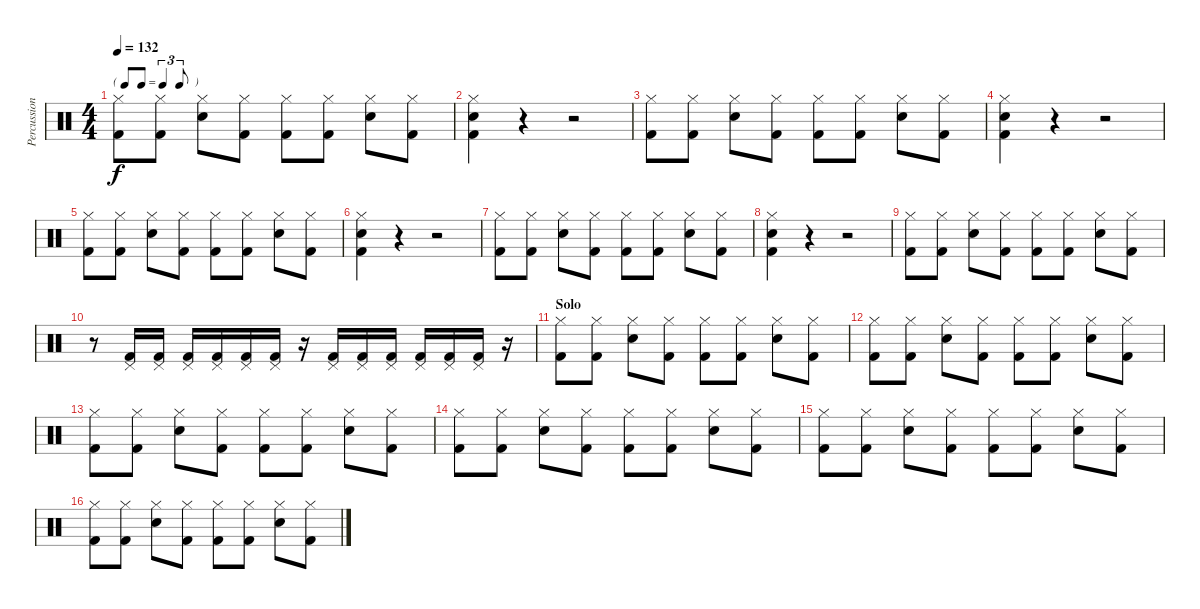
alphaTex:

\track ("Percussion" "Percussion") {instrument percussion}
\staff {score}
\articulation defaults
\ts (4 4)
\tf triplet8th
\tempo 132
\clef neutral
\ks c
("Hi-Hat (closed)" "Kick (hit) 2").8{dy f} ("Hi-Hat (closed)" "Kick (hit) 2").8 ("Hi-Hat (closed)" "Electric Snare (hit)").8 ("Hi-Hat (closed)" "Kick (hit) 2").8 ("Hi-Hat (closed)" "Kick (hit) 2").8 ("Hi-Hat (closed)" "Kick (hit) 2").8 ("Hi-Hat (closed)" "Electric Snare (hit)").8 ("Hi-Hat (closed)" "Kick (hit) 2").8 |
("Hi-Hat (closed)" "Electric Snare (hit)" "Kick (hit) 2").4 r.4 r.2 |
("Hi-Hat (closed)" "Kick (hit) 2").8 ("Hi-Hat (closed)" "Kick (hit) 2").8 ("Hi-Hat (closed)" "Electric Snare (hit)").8 ("Hi-Hat (closed)" "Kick (hit) 2").8 ("Hi-Hat (closed)" "Kick (hit) 2").8 ("Hi-Hat (closed)" "Kick (hit) 2").8 ("Hi-Hat (closed)" "Electric Snare (hit)").8 ("Hi-Hat (closed)" "Kick (hit) 2").8 |
("Hi-Hat (closed)" "Electric Snare (hit)" "Kick (hit) 2").4 r.4 r.2 |
("Hi-Hat (closed)" "Kick (hit) 2").8 ("Hi-Hat (closed)" "Kick (hit) 2").8 ("Hi-Hat (closed)" "Electric Snare (hit)").8 ("Hi-Hat (closed)" "Kick (hit) 2").8 ("Hi-Hat (closed)" "Kick (hit) 2").8 ("Hi-Hat (closed)" "Kick (hit) 2").8 ("Hi-Hat (closed)" "Electric Snare (hit)").8 ("Hi-Hat (closed)" "Kick (hit) 2").8 |
("Hi-Hat (closed)" "Electric Snare (hit)" "Kick (hit) 2").4 r.4 r.2 |
("Hi-Hat (closed)" "Kick (hit) 2").8 ("Hi-Hat (closed)" "Kick (hit) 2").8 ("Hi-Hat (closed)" "Electric Snare (hit)").8 ("Hi-Hat (closed)" "Kick (hit) 2").8 ("Hi-Hat (closed)" "Kick (hit) 2").8 ("Hi-Hat (closed)" "Kick (hit) 2").8 ("Hi-Hat (closed)" "Electric Snare (hit)").8 ("Hi-Hat (closed)" "Kick (hit) 2").8 |
("Hi-Hat (closed)" "Electric Snare (hit)" "Kick (hit) 2").4 r.4 r.2 |
("Hi-Hat (closed)" "Kick (hit) 2").8 ("Hi-Hat (closed)" "Kick (hit) 2").8 ("Hi-Hat (closed)" "Electric Snare (hit)").8 ("Hi-Hat (closed)" "Kick (hit) 2").8 ("Hi-Hat (closed)" "Kick (hit) 2").8 ("Hi-Hat (closed)" "Kick (hit) 2").8 ("Hi-Hat (closed)" "Electric Snare (hit)").8 ("Hi-Hat (closed)" "Kick (hit) 2").8 |
r.8 ("Pedal Hi-Hat (hit)" "Kick (hit) 2").16 ("Pedal Hi-Hat (hit)" "Kick (hit) 2").16 ("Pedal Hi-Hat (hit)" "Kick (hit) 2").16 ("Pedal Hi-Hat (hit)" "Kick (hit) 2").16 ("Pedal Hi-Hat (hit)" "Kick (hit) 2").16 ("Pedal Hi-Hat (hit)" "Kick (hit) 2").16 r.16 ("Pedal Hi-Hat (hit)" "Kick (hit) 2").16 ("Pedal Hi-Hat (hit)" "Kick (hit) 2").16 ("Pedal Hi-Hat (hit)" "Kick (hit) 2").16 ("Pedal Hi-Hat (hit)" "Kick (hit) 2").16 ("Pedal Hi-Hat (hit)" "Kick (hit) 2").16 ("Pedal Hi-Hat (hit)" "Kick (hit) 2").16 r.16 |
\section ("" "Solo")
("Hi-Hat (closed)" "Kick (hit) 2").8 ("Hi-Hat (closed)" "Kick (hit) 2").8 ("Hi-Hat (closed)" "Electric Snare (hit)").8 ("Hi-Hat (closed)" "Kick (hit) 2").8 ("Hi-Hat (closed)" "Kick (hit) 2").8 ("Hi-Hat (closed)" "Kick (hit) 2").8 ("Hi-Hat (closed)" "Electric Snare (hit)").8 ("Hi-Hat (closed)" "Kick (hit) 2").8 |
("Hi-Hat (closed)" "Kick (hit) 2").8 ("Hi-Hat (closed)" "Kick (hit) 2").8 ("Hi-Hat (closed)" "Electric Snare (hit)").8 ("Hi-Hat (closed)" "Kick (hit) 2").8 ("Hi-Hat (closed)" "Kick (hit) 2").8 ("Hi-Hat (closed)" "Kick (hit) 2").8 ("Hi-Hat (closed)" "Electric Snare (hit)").8 ("Hi-Hat (closed)" "Kick (hit) 2").8 |
("Hi-Hat (closed)" "Kick (hit) 2").8 ("Hi-Hat (closed)" "Kick (hit) 2").8 ("Hi-Hat (closed)" "Electric Snare (hit)").8 ("Hi-Hat (closed)" "Kick (hit) 2").8 ("Hi-Hat (closed)" "Kick (hit) 2").8 ("Hi-Hat (closed)" "Kick (hit) 2").8 ("Hi-Hat (closed)" "Electric Snare (hit)").8 ("Hi-Hat (closed)" "Kick (hit) 2").8 |
("Hi-Hat (closed)" "Kick (hit) 2").8 ("Hi-Hat (closed)" "Kick (hit) 2").8 ("Hi-Hat (closed)" "Electric Snare (hit)").8 ("Hi-Hat (closed)" "Kick (hit) 2").8 ("Hi-Hat (closed)" "Kick (hit) 2").8 ("Hi-Hat (closed)" "Kick (hit) 2").8 ("Hi-Hat (closed)" "Electric Snare (hit)").8 ("Hi-Hat (closed)" "Kick (hit) 2").8 |
("Hi-Hat (closed)" "Kick (hit) 2").8 ("Hi-Hat (closed)" "Kick (hit) 2").8 ("Hi-Hat (closed)" "Electric Snare (hit)").8 ("Hi-Hat (closed)" "Kick (hit) 2").8 ("Hi-Hat (closed)" "Kick (hit) 2").8 ("Hi-Hat (closed)" "Kick (hit) 2").8 ("Hi-Hat (closed)" "Electric Snare (hit)").8 ("Hi-Hat (closed)" "Kick (hit) 2").8 |
("Hi-Hat (closed)" "Kick (hit) 2").8 ("Hi-Hat (closed)" "Kick (hit) 2").8 ("Hi-Hat (closed)" "Electric Snare (hit)").8 ("Hi-Hat (closed)" "Kick (hit) 2").8 ("Hi-Hat (closed)" "Kick (hit) 2").8 ("Hi-Hat (closed)" "Kick (hit) 2").8 ("Hi-Hat (closed)" "Electric Snare (hit)").8 ("Hi-Hat (closed)" "Kick (hit) 2").8
